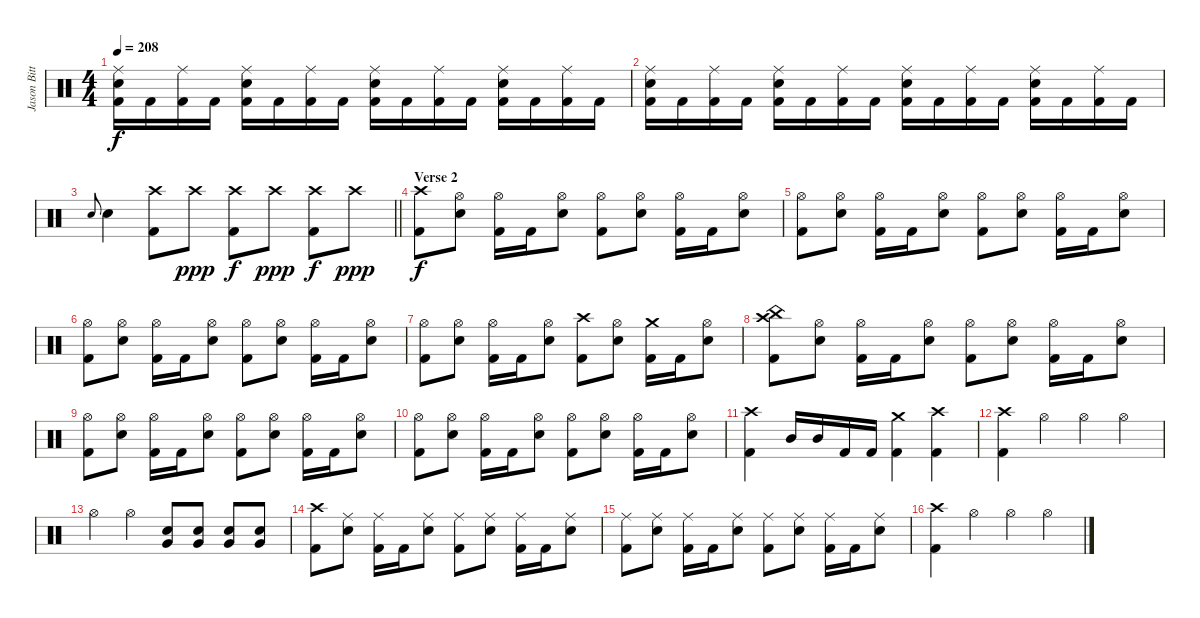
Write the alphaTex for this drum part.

\track ("Jason Bittner" "Jason Bitt") {instrument percussion}
\staff {score}
\articulation defaults
\ts (4 4)
\tempo 208
\clef neutral
\ks c
("Ride (middle)" "Electric Snare (hit)" "Kick (hit) 2").16{dy f} "Kick (hit) 2".16 ("Ride (middle)" "Kick (hit) 2").16 "Kick (hit) 2".16 ("Ride (middle)" "Electric Snare (hit)" "Kick (hit) 2").16 "Kick (hit) 2".16 ("Ride (middle)" "Kick (hit) 2").16 "Kick (hit) 2".16 ("Ride (middle)" "Electric Snare (hit)" "Kick (hit) 2").16 "Kick (hit) 2".16 ("Ride (middle)" "Kick (hit) 2").16 "Kick (hit) 2".16 ("Ride (middle)" "Electric Snare (hit)" "Kick (hit) 2").16 "Kick (hit) 2".16 ("Ride (middle)" "Kick (hit) 2").16 "Kick (hit) 2".16 |
("Ride (middle)" "Electric Snare (hit)" "Kick (hit) 2").16 "Kick (hit) 2".16 ("Ride (middle)" "Kick (hit) 2").16 "Kick (hit) 2".16 ("Ride (middle)" "Electric Snare (hit)" "Kick (hit) 2").16 "Kick (hit) 2".16 ("Ride (middle)" "Kick (hit) 2").16 "Kick (hit) 2".16 ("Ride (middle)" "Electric Snare (hit)" "Kick (hit) 2").16 "Kick (hit) 2".16 ("Ride (middle)" "Kick (hit) 2").16 "Kick (hit) 2".16 ("Ride (middle)" "Electric Snare (hit)" "Kick (hit) 2").16 "Kick (hit) 2".16 ("Ride (middle)" "Kick (hit) 2").16 "Kick (hit) 2".16 |
\barLineRight lightlight "Electric Snare (hit)".8{gr onbeat} "Electric Snare (hit)".4
("Crash high (hit)" "Kick (hit) 2").8 "Crash high (hit)".8{dy ppp} ("Crash high (hit)" "Kick (hit) 2").8{dy f} "Crash high (hit)".8{dy ppp} ("Crash high (hit)" "Kick (hit) 2").8{dy f} "Crash high (hit)".8{dy ppp} |
\section ("" "Verse 2")
("Crash high (hit)" "Kick (hit) 2").8{dy f} ("Hi-Hat (open)" "Electric Snare (hit)").8 ("Hi-Hat (open)" "Kick (hit) 2").16 "Kick (hit) 2".16 ("Hi-Hat (open)" "Electric Snare (hit)").8 ("Hi-Hat (open)" "Kick (hit) 2").8 ("Hi-Hat (open)" "Electric Snare (hit)").8 ("Hi-Hat (open)" "Kick (hit) 2").16 "Kick (hit) 2".16 ("Hi-Hat (open)" "Electric Snare (hit)").8 |
("Hi-Hat (open)" "Kick (hit) 2").8 ("Hi-Hat (open)" "Electric Snare (hit)").8 ("Hi-Hat (open)" "Kick (hit) 2").16 "Kick (hit) 2".16 ("Hi-Hat (open)" "Electric Snare (hit)").8 ("Hi-Hat (open)" "Kick (hit) 2").8 ("Hi-Hat (open)" "Electric Snare (hit)").8 ("Hi-Hat (open)" "Kick (hit) 2").16 "Kick (hit) 2".16 ("Hi-Hat (open)" "Electric Snare (hit)").8 |
("Hi-Hat (open)" "Kick (hit) 2").8 ("Hi-Hat (open)" "Electric Snare (hit)").8 ("Hi-Hat (open)" "Kick (hit) 2").16 "Kick (hit) 2".16 ("Hi-Hat (open)" "Electric Snare (hit)").8 ("Hi-Hat (open)" "Kick (hit) 2").8 ("Hi-Hat (open)" "Electric Snare (hit)").8 ("Hi-Hat (open)" "Kick (hit) 2").16 "Kick (hit) 2".16 ("Hi-Hat (open)" "Electric Snare (hit)").8 |
("Hi-Hat (open)" "Kick (hit) 2").8 ("Hi-Hat (open)" "Electric Snare (hit)").8 ("Hi-Hat (open)" "Kick (hit) 2").16 "Kick (hit) 2".16 ("Hi-Hat (open)" "Electric Snare (hit)").8 ("Crash high (hit)" "Kick (hit) 2").8 ("Hi-Hat (open)" "Electric Snare (hit)").8 ("Crash medium (hit)" "Kick (hit) 2").16 "Kick (hit) 2".16 ("Hi-Hat (open)" "Electric Snare (hit)").8 |
("China (hit)" "Crash high (hit)" "Kick (hit) 2").8 ("Hi-Hat (open)" "Electric Snare (hit)").8 ("Hi-Hat (open)" "Kick (hit) 2").16 "Kick (hit) 2".16 ("Hi-Hat (open)" "Electric Snare (hit)").8 ("Hi-Hat (open)" "Kick (hit) 2").8 ("Hi-Hat (open)" "Electric Snare (hit)").8 ("Hi-Hat (open)" "Kick (hit) 2").16 "Kick (hit) 2".16 ("Hi-Hat (open)" "Electric Snare (hit)").8 |
("Hi-Hat (open)" "Kick (hit) 2").8 ("Hi-Hat (open)" "Electric Snare (hit)").8 ("Hi-Hat (open)" "Kick (hit) 2").16 "Kick (hit) 2".16 ("Hi-Hat (open)" "Electric Snare (hit)").8 ("Hi-Hat (open)" "Kick (hit) 2").8 ("Hi-Hat (open)" "Electric Snare (hit)").8 ("Hi-Hat (open)" "Kick (hit) 2").16 "Kick (hit) 2".16 ("Hi-Hat (open)" "Electric Snare (hit)").8 |
("Hi-Hat (open)" "Kick (hit) 2").8 ("Hi-Hat (open)" "Electric Snare (hit)").8 ("Hi-Hat (open)" "Kick (hit) 2").16 "Kick (hit) 2".16 ("Hi-Hat (open)" "Electric Snare (hit)").8 ("Hi-Hat (open)" "Kick (hit) 2").8 ("Hi-Hat (open)" "Electric Snare (hit)").8 ("Hi-Hat (open)" "Kick (hit) 2").16 "Kick (hit) 2".16 ("Hi-Hat (open)" "Electric Snare (hit)").8 |
("Crash high (hit)" "Kick (hit) 2").4 "Mid Tom (hit)".16 "Mid Tom (hit)".16 "Kick (hit) 2".16 "Kick (hit) 2".16 ("Crash medium (hit)" "Kick (hit) 2").4 ("Crash high (hit)" "Kick (hit) 2").4 |
("Crash high (hit)" "Kick (hit) 2").4 "Hi-Hat (open)".4 "Hi-Hat (open)".4 "Hi-Hat (open)".4 |
"Hi-Hat (open)".4 "Hi-Hat (open)".4 ("Electric Snare (hit)" "Very Low Tom (hit)").8 ("Electric Snare (hit)" "Very Low Tom (hit)").8 ("Electric Snare (hit)" "Very Low Tom (hit)").8 ("Electric Snare (hit)" "Very Low Tom (hit)").8 |
("Crash high (hit)" "Kick (hit) 2").8 ("Ride (middle)" "Electric Snare (hit)").8 ("Ride (middle)" "Kick (hit) 2").16 "Kick (hit) 2".16 ("Ride (middle)" "Electric Snare (hit)").8 ("Ride (middle)" "Kick (hit) 2").8 ("Ride (middle)" "Electric Snare (hit)").8 ("Ride (middle)" "Kick (hit) 2").16 "Kick (hit) 2".16 ("Ride (middle)" "Electric Snare (hit)").8 |
("Ride (middle)" "Kick (hit) 2").8 ("Ride (middle)" "Electric Snare (hit)").8 ("Ride (middle)" "Kick (hit) 2").16 "Kick (hit) 2".16 ("Ride (middle)" "Electric Snare (hit)").8 ("Ride (middle)" "Kick (hit) 2").8 ("Ride (middle)" "Electric Snare (hit)").8 ("Ride (middle)" "Kick (hit) 2").16 "Kick (hit) 2".16 ("Ride (middle)" "Electric Snare (hit)").8 |
("Crash high (hit)" "Kick (hit) 2").4 "Hi-Hat (open)".4 "Hi-Hat (open)".4 "Hi-Hat (open)".4
